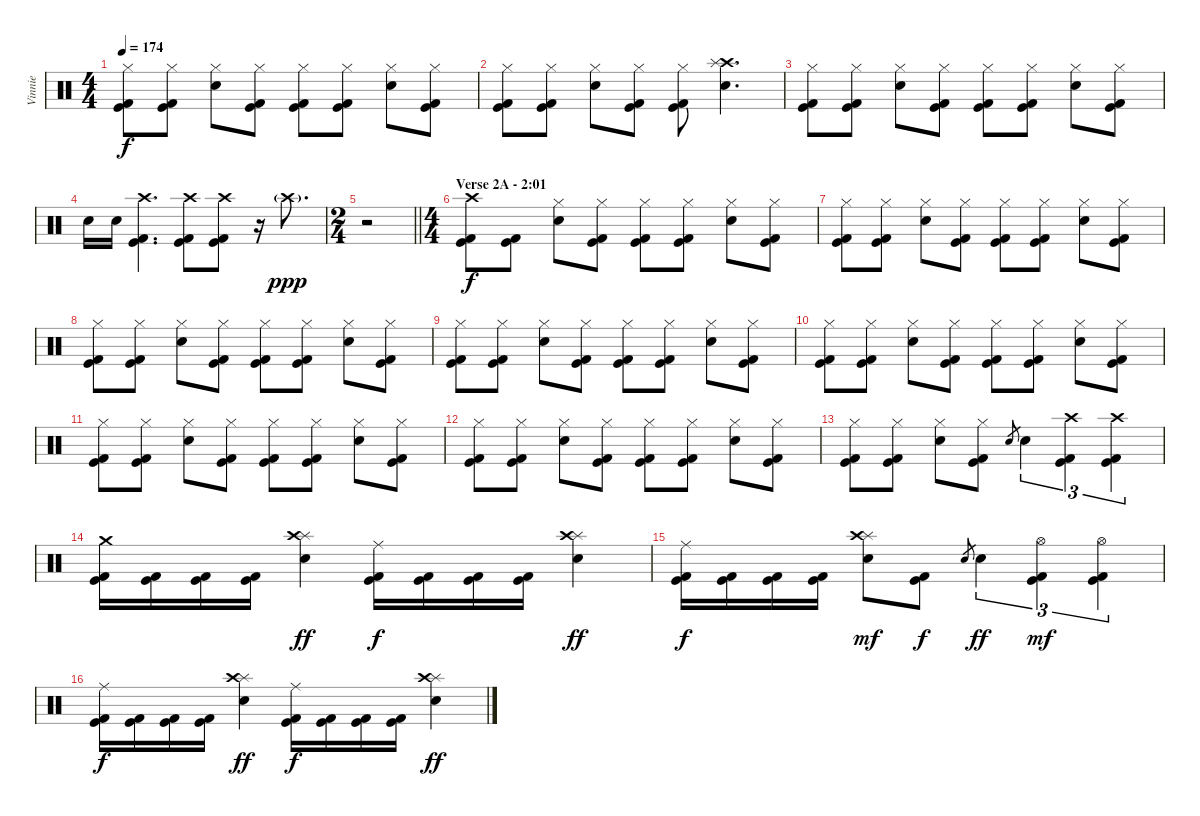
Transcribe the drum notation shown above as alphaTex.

\track ("Vinnie" "Vinnie") {instrument percussion}
\staff {score}
\articulation defaults
\ts (4 4)
\tempo 174
\clef neutral
\ks c
("Hi-Hat (closed)" "Kick (hit)" "Kick (hit) 2").8{dy f} ("Hi-Hat (closed)" "Kick (hit)" "Kick (hit) 2").8 ("Hi-Hat (closed)" "Electric Snare (hit)").8 ("Hi-Hat (closed)" "Kick (hit)" "Kick (hit) 2").8 ("Hi-Hat (closed)" "Kick (hit)" "Kick (hit) 2").8 ("Hi-Hat (closed)" "Kick (hit)" "Kick (hit) 2").8 ("Hi-Hat (closed)" "Electric Snare (hit)").8 ("Hi-Hat (closed)" "Kick (hit)" "Kick (hit) 2").8 |
("Hi-Hat (closed)" "Kick (hit)" "Kick (hit) 2").8 ("Hi-Hat (closed)" "Kick (hit)" "Kick (hit) 2").8 ("Hi-Hat (closed)" "Electric Snare (hit)").8 ("Hi-Hat (closed)" "Kick (hit)" "Kick (hit) 2").8 ("Hi-Hat (closed)" "Kick (hit)" "Kick (hit) 2").8 ("Crash high (hit)" "Splash (hit)" "Electric Snare (hit)").4{d} |
("Hi-Hat (closed)" "Kick (hit)" "Kick (hit) 2").8 ("Hi-Hat (closed)" "Kick (hit)" "Kick (hit) 2").8 ("Hi-Hat (closed)" "Electric Snare (hit)").8 ("Hi-Hat (closed)" "Kick (hit)" "Kick (hit) 2").8 ("Hi-Hat (closed)" "Kick (hit)" "Kick (hit) 2").8 ("Hi-Hat (closed)" "Kick (hit)" "Kick (hit) 2").8 ("Hi-Hat (closed)" "Electric Snare (hit)").8 ("Hi-Hat (closed)" "Kick (hit)" "Kick (hit) 2").8 |
"Electric Snare (hit)".16 "Electric Snare (hit)".16 ("Crash high (hit)" "Kick (hit)" "Kick (hit) 2").4{d} ("Crash high (hit)" "Kick (hit)" "Kick (hit) 2").8 ("Crash high (hit)" "Kick (hit)" "Kick (hit) 2").8 r.16 "Crash high (hit)"{g}.8{d dy ppp} |
\ts (2 4)
\barLineRight lightlight
r.2{volume 16} |
\ts (4 4)
\section ("" "Verse 2A - 2:01")
("Crash high (hit)" "Kick (hit)" "Kick (hit) 2").8{dy f} ("Kick (hit)" "Kick (hit) 2").8 ("Hi-Hat (closed)" "Electric Snare (hit)").8 ("Hi-Hat (closed)" "Kick (hit)" "Kick (hit) 2").8 ("Hi-Hat (closed)" "Kick (hit)" "Kick (hit) 2").8 ("Hi-Hat (closed)" "Kick (hit)" "Kick (hit) 2").8 ("Hi-Hat (closed)" "Electric Snare (hit)").8 ("Hi-Hat (closed)" "Kick (hit)" "Kick (hit) 2").8 |
("Hi-Hat (closed)" "Kick (hit)" "Kick (hit) 2").8 ("Hi-Hat (closed)" "Kick (hit)" "Kick (hit) 2").8 ("Hi-Hat (closed)" "Electric Snare (hit)").8 ("Hi-Hat (closed)" "Kick (hit)" "Kick (hit) 2").8 ("Hi-Hat (closed)" "Kick (hit)" "Kick (hit) 2").8 ("Hi-Hat (closed)" "Kick (hit)" "Kick (hit) 2").8 ("Hi-Hat (closed)" "Electric Snare (hit)").8 ("Hi-Hat (closed)" "Kick (hit)" "Kick (hit) 2").8 |
("Hi-Hat (closed)" "Kick (hit)" "Kick (hit) 2").8 ("Hi-Hat (closed)" "Kick (hit)" "Kick (hit) 2").8 ("Hi-Hat (closed)" "Electric Snare (hit)").8 ("Hi-Hat (closed)" "Kick (hit)" "Kick (hit) 2").8 ("Hi-Hat (closed)" "Kick (hit)" "Kick (hit) 2").8 ("Hi-Hat (closed)" "Kick (hit)" "Kick (hit) 2").8 ("Hi-Hat (closed)" "Electric Snare (hit)").8 ("Hi-Hat (closed)" "Kick (hit)" "Kick (hit) 2").8 |
("Hi-Hat (closed)" "Kick (hit)" "Kick (hit) 2").8 ("Hi-Hat (closed)" "Kick (hit)" "Kick (hit) 2").8 ("Hi-Hat (closed)" "Electric Snare (hit)").8 ("Hi-Hat (closed)" "Kick (hit)" "Kick (hit) 2").8 ("Hi-Hat (closed)" "Kick (hit)" "Kick (hit) 2").8 ("Hi-Hat (closed)" "Kick (hit)" "Kick (hit) 2").8 ("Hi-Hat (closed)" "Electric Snare (hit)").8 ("Hi-Hat (closed)" "Kick (hit)" "Kick (hit) 2").8 |
("Hi-Hat (closed)" "Kick (hit)" "Kick (hit) 2").8 ("Hi-Hat (closed)" "Kick (hit)" "Kick (hit) 2").8 ("Hi-Hat (closed)" "Electric Snare (hit)").8 ("Hi-Hat (closed)" "Kick (hit)" "Kick (hit) 2").8 ("Hi-Hat (closed)" "Kick (hit)" "Kick (hit) 2").8 ("Hi-Hat (closed)" "Kick (hit)" "Kick (hit) 2").8 ("Hi-Hat (closed)" "Electric Snare (hit)").8 ("Hi-Hat (closed)" "Kick (hit)" "Kick (hit) 2").8 |
("Hi-Hat (closed)" "Kick (hit)" "Kick (hit) 2").8 ("Hi-Hat (closed)" "Kick (hit)" "Kick (hit) 2").8 ("Hi-Hat (closed)" "Electric Snare (hit)").8 ("Hi-Hat (closed)" "Kick (hit)" "Kick (hit) 2").8 ("Hi-Hat (closed)" "Kick (hit)" "Kick (hit) 2").8 ("Hi-Hat (closed)" "Kick (hit)" "Kick (hit) 2").8 ("Hi-Hat (closed)" "Electric Snare (hit)").8 ("Hi-Hat (closed)" "Kick (hit)" "Kick (hit) 2").8 |
("Hi-Hat (closed)" "Kick (hit)" "Kick (hit) 2").8 ("Hi-Hat (closed)" "Kick (hit)" "Kick (hit) 2").8 ("Hi-Hat (closed)" "Electric Snare (hit)").8 ("Hi-Hat (closed)" "Kick (hit)" "Kick (hit) 2").8 ("Hi-Hat (closed)" "Kick (hit)" "Kick (hit) 2").8 ("Hi-Hat (closed)" "Kick (hit)" "Kick (hit) 2").8 ("Hi-Hat (closed)" "Electric Snare (hit)").8 ("Hi-Hat (closed)" "Kick (hit)" "Kick (hit) 2").8 |
("Hi-Hat (closed)" "Kick (hit)" "Kick (hit) 2").8 ("Hi-Hat (closed)" "Kick (hit)" "Kick (hit) 2").8 ("Hi-Hat (closed)" "Electric Snare (hit)").8 ("Hi-Hat (closed)" "Kick (hit)" "Kick (hit) 2").8 "Electric Snare (hit)".8{gr} "Electric Snare (hit)".4{tu (3 2)} ("Crash high (hit)" "Kick (hit)" "Kick (hit) 2").4{tu (3 2)} ("Crash high (hit)" "Kick (hit)" "Kick (hit) 2").4{tu (3 2)} |
("Crash medium (hit)" "Kick (hit)" "Kick (hit) 2").16 ("Kick (hit)" "Kick (hit) 2").16 ("Kick (hit)" "Kick (hit) 2").16 ("Kick (hit)" "Kick (hit) 2").16 ("Splash (hit)" "Crash high (hit)" "Electric Snare (hit)").4{dy ff} ("Ride (middle)" "Kick (hit)" "Kick (hit) 2").16{dy f} ("Kick (hit)" "Kick (hit) 2").16 ("Kick (hit)" "Kick (hit) 2").16 ("Kick (hit)" "Kick (hit) 2").16 ("Splash (hit)" "Crash high (hit)" "Electric Snare (hit)").4{dy ff} |
("Ride (middle)" "Kick (hit)" "Kick (hit) 2").16{dy f} ("Kick (hit)" "Kick (hit) 2").16 ("Kick (hit)" "Kick (hit) 2").16 ("Kick (hit)" "Kick (hit) 2").16 ("Splash (hit)" "Crash high (hit)" "Electric Snare (hit)").8{dy mf} ("Kick (hit)" "Kick (hit) 2").8{dy f} "Electric Snare (hit)".8{gr} "Electric Snare (hit)".4{tu (3 2) dy ff} ("Hi-Hat (open)" "Kick (hit)" "Kick (hit) 2").4{tu (3 2) dy mf} ("Hi-Hat (open)" "Kick (hit)" "Kick (hit) 2").4{tu (3 2)} |
("Ride (middle)" "Kick (hit)" "Kick (hit) 2").16{dy f} ("Kick (hit)" "Kick (hit) 2").16 ("Kick (hit)" "Kick (hit) 2").16 ("Kick (hit)" "Kick (hit) 2").16 ("Splash (hit)" "Crash high (hit)" "Electric Snare (hit)").4{dy ff} ("Ride (middle)" "Kick (hit)" "Kick (hit) 2").16{dy f} ("Kick (hit)" "Kick (hit) 2").16 ("Kick (hit)" "Kick (hit) 2").16 ("Kick (hit)" "Kick (hit) 2").16 ("Splash (hit)" "Crash high (hit)" "Electric Snare (hit)").4{dy ff}
